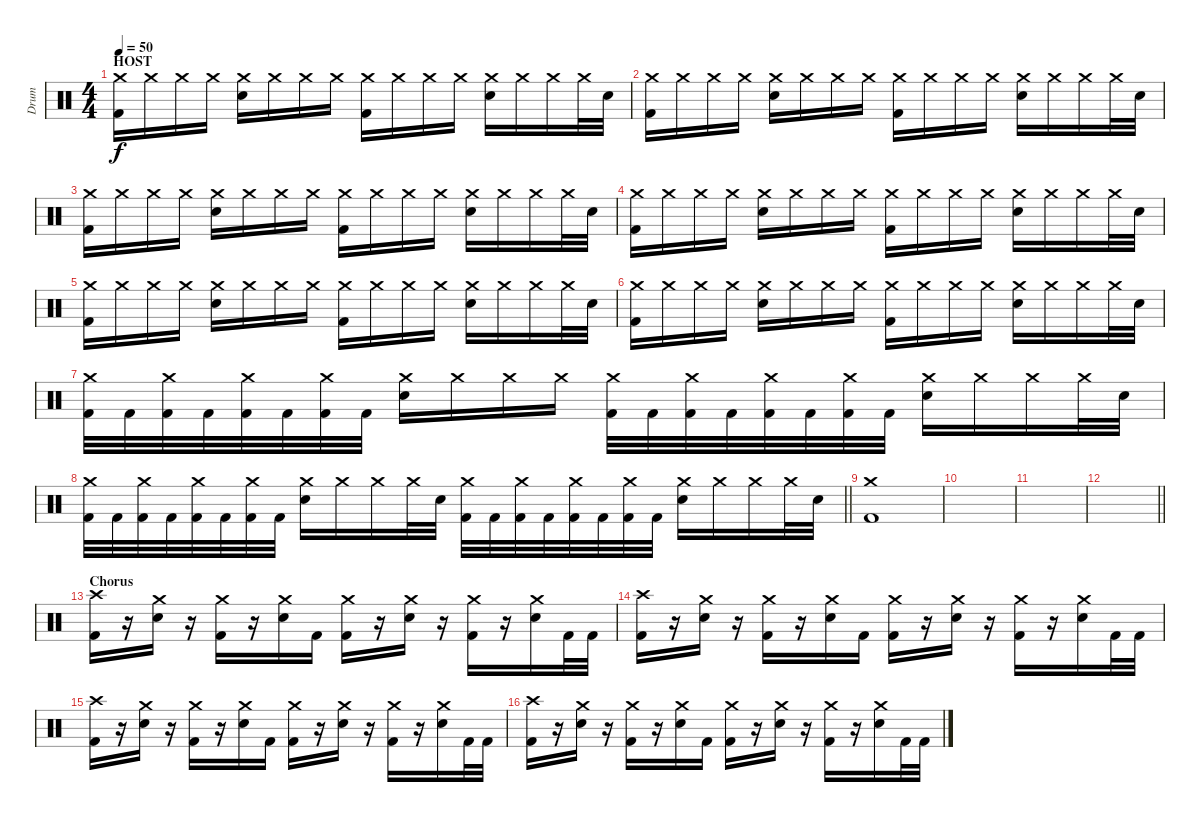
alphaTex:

\track ("Drum " "Drum ") {instrument percussion}
\staff {score}
\articulation defaults
\ts (4 4)
\section ("" "HOST")
\tempo 50
\clef neutral
\ks c
("Crash medium (hit)" "Kick (hit) 2").16{dy f} "Crash medium (hit)".16 "Crash medium (hit)".16 "Crash medium (hit)".16 ("Crash medium (hit)" "Electric Snare (hit)").16 "Crash medium (hit)".16 "Crash medium (hit)".16 "Crash medium (hit)".16 ("Crash medium (hit)" "Kick (hit) 2").16 "Crash medium (hit)".16 "Crash medium (hit)".16 "Crash medium (hit)".16 ("Crash medium (hit)" "Electric Snare (hit)").16 "Crash medium (hit)".16 "Crash medium (hit)".16 "Crash medium (hit)".32 "Electric Snare (hit)".32 |
("Crash medium (hit)" "Kick (hit) 2").16 "Crash medium (hit)".16 "Crash medium (hit)".16 "Crash medium (hit)".16 ("Crash medium (hit)" "Electric Snare (hit)").16 "Crash medium (hit)".16 "Crash medium (hit)".16 "Crash medium (hit)".16 ("Crash medium (hit)" "Kick (hit) 2").16 "Crash medium (hit)".16 "Crash medium (hit)".16 "Crash medium (hit)".16 ("Crash medium (hit)" "Electric Snare (hit)").16 "Crash medium (hit)".16 "Crash medium (hit)".16 "Crash medium (hit)".32 "Electric Snare (hit)".32 |
("Crash medium (hit)" "Kick (hit) 2").16 "Crash medium (hit)".16 "Crash medium (hit)".16 "Crash medium (hit)".16 ("Crash medium (hit)" "Electric Snare (hit)").16 "Crash medium (hit)".16 "Crash medium (hit)".16 "Crash medium (hit)".16 ("Crash medium (hit)" "Kick (hit) 2").16 "Crash medium (hit)".16 "Crash medium (hit)".16 "Crash medium (hit)".16 ("Crash medium (hit)" "Electric Snare (hit)").16 "Crash medium (hit)".16 "Crash medium (hit)".16 "Crash medium (hit)".32 "Electric Snare (hit)".32 |
("Crash medium (hit)" "Kick (hit) 2").16 "Crash medium (hit)".16 "Crash medium (hit)".16 "Crash medium (hit)".16 ("Crash medium (hit)" "Electric Snare (hit)").16 "Crash medium (hit)".16 "Crash medium (hit)".16 "Crash medium (hit)".16 ("Crash medium (hit)" "Kick (hit) 2").16 "Crash medium (hit)".16 "Crash medium (hit)".16 "Crash medium (hit)".16 ("Crash medium (hit)" "Electric Snare (hit)").16 "Crash medium (hit)".16 "Crash medium (hit)".16 "Crash medium (hit)".32 "Electric Snare (hit)".32 |
("Crash medium (hit)" "Kick (hit) 2").16 "Crash medium (hit)".16 "Crash medium (hit)".16 "Crash medium (hit)".16 ("Crash medium (hit)" "Electric Snare (hit)").16 "Crash medium (hit)".16 "Crash medium (hit)".16 "Crash medium (hit)".16 ("Crash medium (hit)" "Kick (hit) 2").16 "Crash medium (hit)".16 "Crash medium (hit)".16 "Crash medium (hit)".16 ("Crash medium (hit)" "Electric Snare (hit)").16 "Crash medium (hit)".16 "Crash medium (hit)".16 "Crash medium (hit)".32 "Electric Snare (hit)".32 |
("Crash medium (hit)" "Kick (hit) 2").16 "Crash medium (hit)".16 "Crash medium (hit)".16 "Crash medium (hit)".16 ("Crash medium (hit)" "Electric Snare (hit)").16 "Crash medium (hit)".16 "Crash medium (hit)".16 "Crash medium (hit)".16 ("Crash medium (hit)" "Kick (hit) 2").16 "Crash medium (hit)".16 "Crash medium (hit)".16 "Crash medium (hit)".16 ("Crash medium (hit)" "Electric Snare (hit)").16 "Crash medium (hit)".16 "Crash medium (hit)".16 "Crash medium (hit)".32 "Electric Snare (hit)".32 |
("Crash medium (hit)" "Kick (hit) 2").32 "Kick (hit) 2".32 ("Crash medium (hit)" "Kick (hit) 2").32 "Kick (hit) 2".32 ("Crash medium (hit)" "Kick (hit) 2").32 "Kick (hit) 2".32 ("Crash medium (hit)" "Kick (hit) 2").32 "Kick (hit) 2".32 ("Crash medium (hit)" "Electric Snare (hit)").16 "Crash medium (hit)".16 "Crash medium (hit)".16 "Crash medium (hit)".16 ("Crash medium (hit)" "Kick (hit) 2").32 "Kick (hit) 2".32 ("Crash medium (hit)" "Kick (hit) 2").32 "Kick (hit) 2".32 ("Crash medium (hit)" "Kick (hit) 2").32 "Kick (hit) 2".32 ("Crash medium (hit)" "Kick (hit) 2").32 "Kick (hit) 2".32 ("Crash medium (hit)" "Electric Snare (hit)").16 "Crash medium (hit)".16 "Crash medium (hit)".16 "Crash medium (hit)".32 "Electric Snare (hit)".32 |
\barLineRight lightlight
("Crash medium (hit)" "Kick (hit) 2").32 "Kick (hit) 2".32 ("Crash medium (hit)" "Kick (hit) 2").32 "Kick (hit) 2".32 ("Crash medium (hit)" "Kick (hit) 2").32 "Kick (hit) 2".32 ("Crash medium (hit)" "Kick (hit) 2").32 "Kick (hit) 2".32 ("Crash medium (hit)" "Electric Snare (hit)").16 "Crash medium (hit)".16 "Crash medium (hit)".16 "Crash medium (hit)".32 "Electric Snare (hit)".32 ("Crash medium (hit)" "Kick (hit) 2").32 "Kick (hit) 2".32 ("Crash medium (hit)" "Kick (hit) 2").32 "Kick (hit) 2".32 ("Crash medium (hit)" "Kick (hit) 2").32 "Kick (hit) 2".32 ("Crash medium (hit)" "Kick (hit) 2").32 "Kick (hit) 2".32 ("Crash medium (hit)" "Electric Snare (hit)").16 "Crash medium (hit)".16 "Crash medium (hit)".16 "Crash medium (hit)".32 "Electric Snare (hit)".32 |
("Crash medium (hit)" "Kick (hit) 2").1 |
|
|
\barLineRight lightlight
|
\section ("" "Chorus")
("Crash high (hit)" "Kick (hit) 2").16 r.16 ("Crash medium (hit)" "Electric Snare (hit)").16 r.16 ("Crash medium (hit)" "Kick (hit) 2").16 r.16 ("Crash medium (hit)" "Electric Snare (hit)").16 "Kick (hit) 2".16 ("Crash medium (hit)" "Kick (hit) 2").16 r.16 ("Crash medium (hit)" "Electric Snare (hit)").16 r.16 ("Crash medium (hit)" "Kick (hit) 2").16 r.16 ("Crash medium (hit)" "Electric Snare (hit)").16 "Kick (hit) 2".32 "Kick (hit) 2".32 |
("Crash high (hit)" "Kick (hit) 2").16 r.16 ("Crash medium (hit)" "Electric Snare (hit)").16 r.16 ("Crash medium (hit)" "Kick (hit) 2").16 r.16 ("Crash medium (hit)" "Electric Snare (hit)").16 "Kick (hit) 2".16 ("Crash medium (hit)" "Kick (hit) 2").16 r.16 ("Crash medium (hit)" "Electric Snare (hit)").16 r.16 ("Crash medium (hit)" "Kick (hit) 2").16 r.16 ("Crash medium (hit)" "Electric Snare (hit)").16 "Kick (hit) 2".32 "Kick (hit) 2".32 |
("Crash high (hit)" "Kick (hit) 2").16 r.16 ("Crash medium (hit)" "Electric Snare (hit)").16 r.16 ("Crash medium (hit)" "Kick (hit) 2").16 r.16 ("Crash medium (hit)" "Electric Snare (hit)").16 "Kick (hit) 2".16 ("Crash medium (hit)" "Kick (hit) 2").16 r.16 ("Crash medium (hit)" "Electric Snare (hit)").16 r.16 ("Crash medium (hit)" "Kick (hit) 2").16 r.16 ("Crash medium (hit)" "Electric Snare (hit)").16 "Kick (hit) 2".32 "Kick (hit) 2".32 |
("Crash high (hit)" "Kick (hit) 2").16 r.16 ("Crash medium (hit)" "Electric Snare (hit)").16 r.16 ("Crash medium (hit)" "Kick (hit) 2").16 r.16 ("Crash medium (hit)" "Electric Snare (hit)").16 "Kick (hit) 2".16 ("Crash medium (hit)" "Kick (hit) 2").16 r.16 ("Crash medium (hit)" "Electric Snare (hit)").16 r.16 ("Crash medium (hit)" "Kick (hit) 2").16 r.16 ("Crash medium (hit)" "Electric Snare (hit)").16 "Kick (hit) 2".32 "Kick (hit) 2".32
